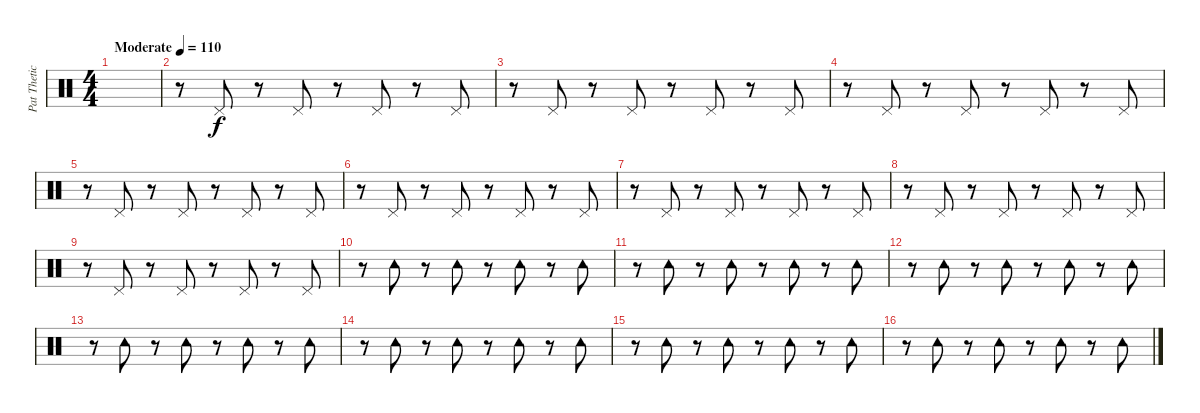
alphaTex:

\track ("Pat Thetic Drums" "Pat Thetic") {instrument percussion}
\staff {score}
\articulation defaults
\ts (4 4)
\tempo (110 "Moderate")
\clef neutral
\ks c
|
r.8 "Pedal Hi-Hat (hit)".8 r.8 "Pedal Hi-Hat (hit)".8 r.8 "Pedal Hi-Hat (hit)".8 r.8 "Pedal Hi-Hat (hit)".8 |
r.8 "Pedal Hi-Hat (hit)".8 r.8 "Pedal Hi-Hat (hit)".8 r.8 "Pedal Hi-Hat (hit)".8 r.8 "Pedal Hi-Hat (hit)".8 |
r.8 "Pedal Hi-Hat (hit)".8 r.8 "Pedal Hi-Hat (hit)".8 r.8 "Pedal Hi-Hat (hit)".8 r.8 "Pedal Hi-Hat (hit)".8 |
r.8 "Pedal Hi-Hat (hit)".8 r.8 "Pedal Hi-Hat (hit)".8 r.8 "Pedal Hi-Hat (hit)".8 r.8 "Pedal Hi-Hat (hit)".8 |
r.8 "Pedal Hi-Hat (hit)".8 r.8 "Pedal Hi-Hat (hit)".8 r.8 "Pedal Hi-Hat (hit)".8 r.8 "Pedal Hi-Hat (hit)".8 |
r.8 "Pedal Hi-Hat (hit)".8 r.8 "Pedal Hi-Hat (hit)".8 r.8 "Pedal Hi-Hat (hit)".8 r.8 "Pedal Hi-Hat (hit)".8 |
r.8 "Pedal Hi-Hat (hit)".8 r.8 "Pedal Hi-Hat (hit)".8 r.8 "Pedal Hi-Hat (hit)".8 r.8 "Pedal Hi-Hat (hit)".8 |
r.8 "Pedal Hi-Hat (hit)".8 r.8 "Pedal Hi-Hat (hit)".8 r.8 "Pedal Hi-Hat (hit)".8 r.8 "Pedal Hi-Hat (hit)".8 |
r.8 "Tambourine (hit)".8{dy f} r.8 "Tambourine (hit)".8 r.8 "Tambourine (hit)".8 r.8 "Tambourine (hit)".8 |
r.8 "Tambourine (hit)".8 r.8 "Tambourine (hit)".8 r.8 "Tambourine (hit)".8 r.8 "Tambourine (hit)".8 |
r.8 "Tambourine (hit)".8 r.8 "Tambourine (hit)".8 r.8 "Tambourine (hit)".8 r.8 "Tambourine (hit)".8 |
r.8 "Tambourine (hit)".8 r.8 "Tambourine (hit)".8 r.8 "Tambourine (hit)".8 r.8 "Tambourine (hit)".8 |
r.8 "Tambourine (hit)".8 r.8 "Tambourine (hit)".8 r.8 "Tambourine (hit)".8 r.8 "Tambourine (hit)".8 |
r.8 "Tambourine (hit)".8 r.8 "Tambourine (hit)".8 r.8 "Tambourine (hit)".8 r.8 "Tambourine (hit)".8 |
r.8 "Tambourine (hit)".8 r.8 "Tambourine (hit)".8 r.8 "Tambourine (hit)".8 r.8 "Tambourine (hit)".8
